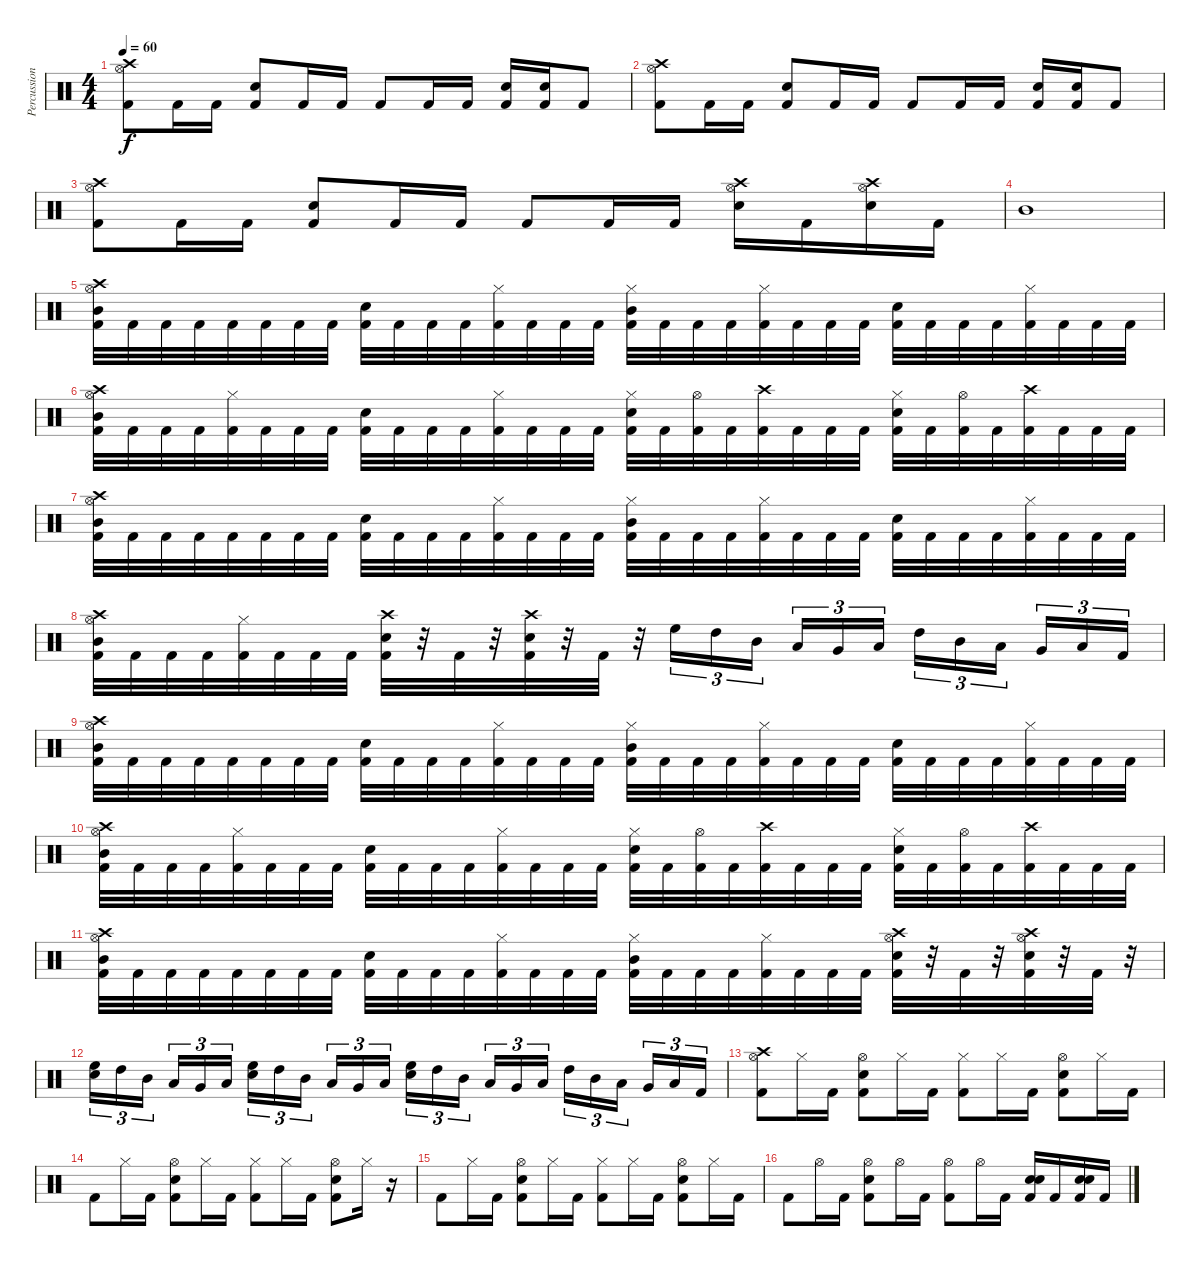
\track ("Percussion" "Percussion") {instrument percussion}
\staff {score}
\articulation defaults
\ts (4 4)
\tempo 60
\clef neutral
\ks c
("Hi-Hat (open)" "Crash high (hit)" "Kick (hit) 2").8{dy f} "Kick (hit) 2".16 "Kick (hit) 2".16 ("Snare (hit) 2" "Kick (hit) 2").8 "Kick (hit) 2".16 "Kick (hit) 2".16 "Kick (hit) 2".8 "Kick (hit) 2".16 "Kick (hit) 2".16 ("Snare (hit) 2" "Kick (hit) 2").16 ("Snare (hit) 2" "Kick (hit) 2").16 "Kick (hit) 2".8 |
("Hi-Hat (open)" "Crash high (hit)" "Kick (hit) 2").8 "Kick (hit) 2".16 "Kick (hit) 2".16 ("Snare (hit) 2" "Kick (hit) 2").8 "Kick (hit) 2".16 "Kick (hit) 2".16 "Kick (hit) 2".8 "Kick (hit) 2".16 "Kick (hit) 2".16 ("Snare (hit) 2" "Kick (hit) 2").16 ("Snare (hit) 2" "Kick (hit) 2").16 "Kick (hit) 2".8 |
("Hi-Hat (open)" "Crash high (hit)" "Kick (hit) 2").8 "Kick (hit) 2".16 "Kick (hit) 2".16 ("Snare (hit) 2" "Kick (hit) 2").8 "Kick (hit) 2".16 "Kick (hit) 2".16 "Kick (hit) 2".8 "Kick (hit) 2".16 "Kick (hit) 2".16 ("Hi-Hat (open)" "Crash high (hit)" "Snare (hit) 2").16 "Kick (hit) 2".16 ("Hi-Hat (open)" "Crash high (hit)" "Snare (hit) 2").16 "Kick (hit) 2".16 |
"Mid Tom (hit)".1{volume 16} |
("Hi-Hat (open)" "Crash high (hit)" "Mid Tom (hit)" "Kick (hit) 2").32{volume 12} "Kick (hit) 2".32 "Kick (hit) 2".32 "Kick (hit) 2".32 "Kick (hit) 2".32 "Kick (hit) 2".32 "Kick (hit) 2".32 "Kick (hit) 2".32 ("Snare (hit) 2" "Kick (hit) 2").32 "Kick (hit) 2".32 "Kick (hit) 2".32 "Kick (hit) 2".32 ("Hi-Hat (closed)" "Kick (hit) 2").32 "Kick (hit) 2".32 "Kick (hit) 2".32 "Kick (hit) 2".32 ("Hi-Hat (closed)" "Mid Tom (hit)" "Kick (hit) 2").32 "Kick (hit) 2".32 "Kick (hit) 2".32 "Kick (hit) 2".32 ("Hi-Hat (closed)" "Kick (hit) 2").32 "Kick (hit) 2".32 "Kick (hit) 2".32 "Kick (hit) 2".32 ("Snare (hit) 2" "Kick (hit) 2").32 "Kick (hit) 2".32 "Kick (hit) 2".32 "Kick (hit) 2".32 ("Hi-Hat (closed)" "Kick (hit) 2").32 "Kick (hit) 2".32 "Kick (hit) 2".32 "Kick (hit) 2".32 |
("Hi-Hat (open)" "Crash high (hit)" "Mid Tom (hit)" "Kick (hit) 2").32 "Kick (hit) 2".32 "Kick (hit) 2".32 "Kick (hit) 2".32 ("Hi-Hat (closed)" "Kick (hit) 2").32 "Kick (hit) 2".32 "Kick (hit) 2".32 "Kick (hit) 2".32 ("Snare (hit) 2" "Kick (hit) 2").32 "Kick (hit) 2".32 "Kick (hit) 2".32 "Kick (hit) 2".32 ("Hi-Hat (closed)" "Kick (hit) 2").32 "Kick (hit) 2".32 "Kick (hit) 2".32 "Kick (hit) 2".32 ("Hi-Hat (closed)" "Snare (hit) 2" "Kick (hit) 2").32 "Kick (hit) 2".32 ("Hi-Hat (open)" "Kick (hit) 2").32 "Kick (hit) 2".32 ("Crash high (hit)" "Kick (hit) 2").32 "Kick (hit) 2".32 "Kick (hit) 2".32 "Kick (hit) 2".32 ("Hi-Hat (closed)" "Snare (hit) 2" "Kick (hit) 2").32 "Kick (hit) 2".32 ("Hi-Hat (open)" "Kick (hit) 2").32 "Kick (hit) 2".32 ("Crash high (hit)" "Kick (hit) 2").32 "Kick (hit) 2".32 "Kick (hit) 2".32 "Kick (hit) 2".32 |
("Hi-Hat (open)" "Crash high (hit)" "Mid Tom (hit)" "Kick (hit) 2").32 "Kick (hit) 2".32 "Kick (hit) 2".32 "Kick (hit) 2".32 "Kick (hit) 2".32 "Kick (hit) 2".32 "Kick (hit) 2".32 "Kick (hit) 2".32 ("Snare (hit) 2" "Kick (hit) 2").32 "Kick (hit) 2".32 "Kick (hit) 2".32 "Kick (hit) 2".32 ("Hi-Hat (closed)" "Kick (hit) 2").32 "Kick (hit) 2".32 "Kick (hit) 2".32 "Kick (hit) 2".32 ("Hi-Hat (closed)" "Mid Tom (hit)" "Kick (hit) 2").32 "Kick (hit) 2".32 "Kick (hit) 2".32 "Kick (hit) 2".32 ("Hi-Hat (closed)" "Kick (hit) 2").32 "Kick (hit) 2".32 "Kick (hit) 2".32 "Kick (hit) 2".32 ("Snare (hit) 2" "Kick (hit) 2").32 "Kick (hit) 2".32 "Kick (hit) 2".32 "Kick (hit) 2".32 ("Hi-Hat (closed)" "Kick (hit) 2").32 "Kick (hit) 2".32 "Kick (hit) 2".32 "Kick (hit) 2".32 |
("Hi-Hat (open)" "Crash high (hit)" "Mid Tom (hit)" "Kick (hit) 2").32 "Kick (hit) 2".32 "Kick (hit) 2".32 "Kick (hit) 2".32 ("Hi-Hat (closed)" "Kick (hit) 2").32 "Kick (hit) 2".32 "Kick (hit) 2".32 "Kick (hit) 2".32 ("Crash high (hit)" "Snare (hit) 2" "Kick (hit) 2").32 r.32 "Kick (hit) 2".32 r.32 ("Crash high (hit)" "Snare (hit) 2" "Kick (hit) 2").32 r.32 "Kick (hit) 2".32 r.32 "High Floor Tom (hit)".16{tu (3 2)} "High Tom (hit)".16{tu (3 2)} "Mid Tom (hit)".16{tu (3 2)} "Low Tom (hit)".16{tu (3 2)} "Very Low Tom (hit)".16{tu (3 2)} "Low Floor Tom (hit)".16{tu (3 2)} "High Tom (hit)".16{tu (3 2)} "Mid Tom (hit)".16{tu (3 2)} "Low Tom (hit)".16{tu (3 2)} "Very Low Tom (hit)".16{tu (3 2)} "Low Floor Tom (hit)".16{tu (3 2)} "Kick (hit) 2".16{tu (3 2)} |
("Hi-Hat (open)" "Crash high (hit)" "Mid Tom (hit)" "Kick (hit) 2").32 "Kick (hit) 2".32 "Kick (hit) 2".32 "Kick (hit) 2".32 "Kick (hit) 2".32 "Kick (hit) 2".32 "Kick (hit) 2".32 "Kick (hit) 2".32 ("Snare (hit) 2" "Kick (hit) 2").32 "Kick (hit) 2".32 "Kick (hit) 2".32 "Kick (hit) 2".32 ("Hi-Hat (closed)" "Kick (hit) 2").32 "Kick (hit) 2".32 "Kick (hit) 2".32 "Kick (hit) 2".32 ("Hi-Hat (closed)" "Mid Tom (hit)" "Kick (hit) 2").32 "Kick (hit) 2".32 "Kick (hit) 2".32 "Kick (hit) 2".32 ("Hi-Hat (closed)" "Kick (hit) 2").32 "Kick (hit) 2".32 "Kick (hit) 2".32 "Kick (hit) 2".32 ("Snare (hit) 2" "Kick (hit) 2").32 "Kick (hit) 2".32 "Kick (hit) 2".32 "Kick (hit) 2".32 ("Hi-Hat (closed)" "Kick (hit) 2").32 "Kick (hit) 2".32 "Kick (hit) 2".32 "Kick (hit) 2".32 |
("Hi-Hat (open)" "Crash high (hit)" "Mid Tom (hit)" "Kick (hit) 2").32 "Kick (hit) 2".32 "Kick (hit) 2".32 "Kick (hit) 2".32 ("Hi-Hat (closed)" "Kick (hit) 2").32 "Kick (hit) 2".32 "Kick (hit) 2".32 "Kick (hit) 2".32 ("Snare (hit) 2" "Kick (hit) 2").32 "Kick (hit) 2".32 "Kick (hit) 2".32 "Kick (hit) 2".32 ("Hi-Hat (closed)" "Kick (hit) 2").32 "Kick (hit) 2".32 "Kick (hit) 2".32 "Kick (hit) 2".32 ("Hi-Hat (closed)" "Snare (hit) 2" "Kick (hit) 2").32 "Kick (hit) 2".32 ("Hi-Hat (open)" "Kick (hit) 2").32 "Kick (hit) 2".32 ("Crash high (hit)" "Kick (hit) 2").32 "Kick (hit) 2".32 "Kick (hit) 2".32 "Kick (hit) 2".32 ("Hi-Hat (closed)" "Snare (hit) 2" "Kick (hit) 2").32 "Kick (hit) 2".32 ("Hi-Hat (open)" "Kick (hit) 2").32 "Kick (hit) 2".32 ("Crash high (hit)" "Kick (hit) 2").32 "Kick (hit) 2".32 "Kick (hit) 2".32 "Kick (hit) 2".32 |
("Hi-Hat (open)" "Crash high (hit)" "Mid Tom (hit)" "Kick (hit) 2").32 "Kick (hit) 2".32 "Kick (hit) 2".32 "Kick (hit) 2".32 "Kick (hit) 2".32 "Kick (hit) 2".32 "Kick (hit) 2".32 "Kick (hit) 2".32 ("Snare (hit) 2" "Kick (hit) 2").32 "Kick (hit) 2".32 "Kick (hit) 2".32 "Kick (hit) 2".32 ("Hi-Hat (closed)" "Kick (hit) 2").32 "Kick (hit) 2".32 "Kick (hit) 2".32 "Kick (hit) 2".32 ("Hi-Hat (closed)" "Mid Tom (hit)" "Kick (hit) 2").32 "Kick (hit) 2".32 "Kick (hit) 2".32 "Kick (hit) 2".32 ("Hi-Hat (closed)" "Kick (hit) 2").32 "Kick (hit) 2".32 "Kick (hit) 2".32 "Kick (hit) 2".32 ("Hi-Hat (open)" "Crash high (hit)" "Snare (hit) 2" "Kick (hit) 2").32 r.32 "Kick (hit) 2".32 r.32 ("Hi-Hat (open)" "Crash high (hit)" "Snare (hit) 2" "Kick (hit) 2").32 r.32 "Kick (hit) 2".32 r.32 |
("Snare (hit) 2" "High Floor Tom (hit)").16{tu (3 2)} "High Tom (hit)".16{tu (3 2)} "Mid Tom (hit)".16{tu (3 2)} "Low Tom (hit)".16{tu (3 2)} "Very Low Tom (hit)".16{tu (3 2)} "Low Floor Tom (hit)".16{tu (3 2)} ("Snare (hit) 2" "High Floor Tom (hit)").16{tu (3 2)} "High Tom (hit)".16{tu (3 2)} "Mid Tom (hit)".16{tu (3 2)} "Low Tom (hit)".16{tu (3 2)} "Very Low Tom (hit)".16{tu (3 2)} "Low Floor Tom (hit)".16{tu (3 2)} ("Snare (hit) 2" "High Floor Tom (hit)").16{tu (3 2)} "High Tom (hit)".16{tu (3 2)} "Mid Tom (hit)".16{tu (3 2)} "Low Tom (hit)".16{tu (3 2)} "Very Low Tom (hit)".16{tu (3 2)} "Low Floor Tom (hit)".16{tu (3 2)} "High Tom (hit)".16{tu (3 2)} "Mid Tom (hit)".16{tu (3 2)} "Low Tom (hit)".16{tu (3 2)} "Very Low Tom (hit)".16{tu (3 2)} "Low Floor Tom (hit)".16{tu (3 2)} "Kick (hit) 2".16{tu (3 2)} |
("Crash high (hit)" "Hi-Hat (open)" "Kick (hit) 2").8 "Hi-Hat (closed)".16 "Kick (hit) 2".16 ("Hi-Hat (open)" "Snare (hit) 2" "Kick (hit) 2").8 "Hi-Hat (closed)".16 "Kick (hit) 2".16 ("Hi-Hat (closed)" "Kick (hit) 2").8 "Hi-Hat (closed)".16 "Kick (hit) 2".16 ("Hi-Hat (open)" "Snare (hit) 2" "Kick (hit) 2").8 "Hi-Hat (closed)".16 "Kick (hit) 2".16 |
"Kick (hit) 2".8 "Hi-Hat (closed)".16 "Kick (hit) 2".16 ("Hi-Hat (open)" "Snare (hit) 2" "Kick (hit) 2").8 "Hi-Hat (closed)".16 "Kick (hit) 2".16 ("Hi-Hat (closed)" "Kick (hit) 2").8 "Hi-Hat (closed)".16 "Kick (hit) 2".16 ("Hi-Hat (open)" "Snare (hit) 2" "Kick (hit) 2").8 "Hi-Hat (closed)".16 r.16 |
"Kick (hit) 2".8 "Hi-Hat (closed)".16 "Kick (hit) 2".16 ("Hi-Hat (open)" "Snare (hit) 2" "Kick (hit) 2").8 "Hi-Hat (closed)".16 "Kick (hit) 2".16 ("Hi-Hat (closed)" "Kick (hit) 2").8 "Hi-Hat (closed)".16 "Kick (hit) 2".16 ("Hi-Hat (open)" "Snare (hit) 2" "Kick (hit) 2").8 "Hi-Hat (closed)".16 "Kick (hit) 2".16 |
"Kick (hit) 2".8 "Hi-Hat (open)".16 "Kick (hit) 2".16 ("Hi-Hat (open)" "Snare (hit) 2" "Kick (hit) 2").8 "Hi-Hat (open)".16 "Kick (hit) 2".16 ("Hi-Hat (open)" "Kick (hit) 2").8 "Hi-Hat (open)".16 "Kick (hit) 2".16 ("Snare (hit) 2" "Snare (hit) 2" "Kick (hit) 2").16 "Kick (hit) 2".16 ("Snare (hit) 2" "Snare (hit) 2" "Kick (hit) 2").16 "Kick (hit) 2".16
